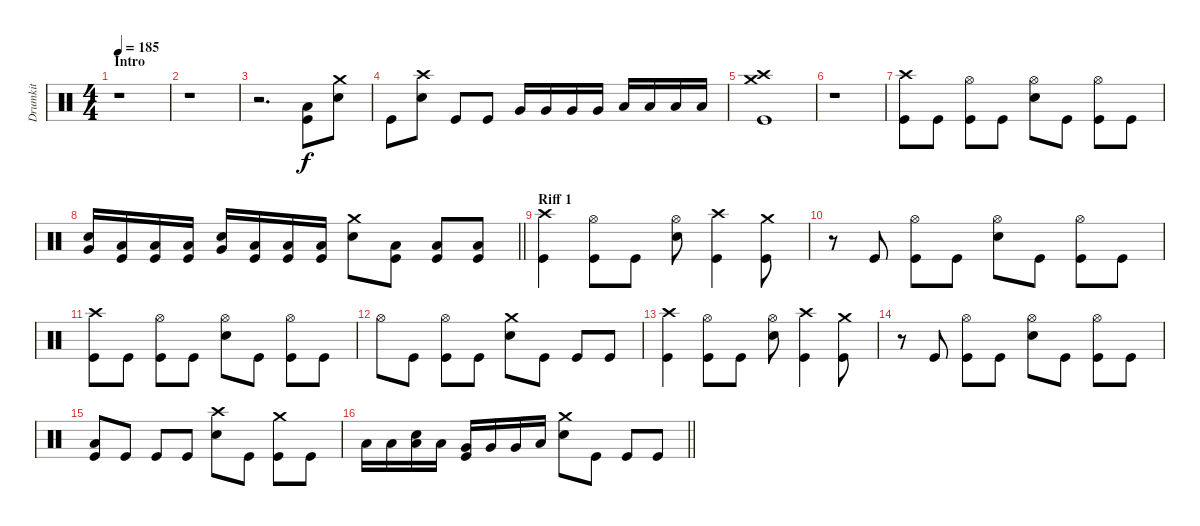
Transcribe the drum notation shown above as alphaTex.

\track ("Drumkit" "Drumkit") {instrument percussion}
\staff {score}
\articulation defaults
\ts (4 4)
\section ("" "Intro")
\tempo 185
\clef neutral
\ks c
r.1{dy f} |
r.1 |
r.2{d} ("Kick (hit)" "Low Floor Tom (hit)").8 ("Snare (hit) 2" "Crash medium (hit)").8 |
"Kick (hit)".8 ("Snare (hit) 2" "Crash high (hit)").8 "Kick (hit)".8 "Kick (hit)".8 "Very Low Tom (hit)".16 "Very Low Tom (hit)".16 "Very Low Tom (hit)".16 "Very Low Tom (hit)".16 "Low Floor Tom (hit)".16 "Low Floor Tom (hit)".16 "Low Floor Tom (hit)".16 "Low Floor Tom (hit)".16 |
("Kick (hit)" "Crash high (hit)" "Crash medium (hit)").1 |
r.1 |
("Kick (hit)" "Crash high (hit)").8 "Kick (hit)".8 ("Kick (hit)" "Hi-Hat (open)").8 "Kick (hit)".8 ("Snare (hit) 2" "Hi-Hat (open)").8 "Kick (hit)".8 ("Kick (hit)" "Hi-Hat (open)").8 "Kick (hit)".8 |
\barLineRight lightlight
("Very Low Tom (hit)" "Snare (hit) 2").16 ("Low Floor Tom (hit)" "Kick (hit)").16 ("Low Floor Tom (hit)" "Kick (hit)").16 ("Low Floor Tom (hit)" "Kick (hit)").16 ("Very Low Tom (hit)" "Snare (hit) 2").16 ("Low Floor Tom (hit)" "Kick (hit)").16 ("Low Floor Tom (hit)" "Kick (hit)").16 ("Low Floor Tom (hit)" "Kick (hit)").16 ("Snare (hit) 2" "Crash medium (hit)").8 ("Low Floor Tom (hit)" "Kick (hit)").8 ("Low Floor Tom (hit)" "Kick (hit)").8 ("Low Floor Tom (hit)" "Kick (hit)").8 |
\section ("" "Riff 1")
("Kick (hit)" "Crash high (hit)").4 ("Kick (hit)" "Hi-Hat (open)").8 "Kick (hit)".8 ("Snare (hit) 2" "Hi-Hat (open)").8 ("Kick (hit)" "Crash high (hit)").4 ("Kick (hit)" "Crash medium (hit)").8 |
r.8 "Kick (hit)".8 ("Kick (hit)" "Hi-Hat (open)").8 "Kick (hit)".8 ("Snare (hit) 2" "Hi-Hat (open)").8 "Kick (hit)".8 ("Kick (hit)" "Hi-Hat (open)").8 "Kick (hit)".8 |
("Kick (hit)" "Crash high (hit)").8 "Kick (hit)".8 ("Kick (hit)" "Hi-Hat (open)").8 "Kick (hit)".8 ("Snare (hit) 2" "Hi-Hat (open)").8 "Kick (hit)".8 ("Kick (hit)" "Hi-Hat (open)").8 "Kick (hit)".8 |
"Hi-Hat (open)".8 "Kick (hit)".8 ("Kick (hit)" "Hi-Hat (open)").8 "Kick (hit)".8 ("Snare (hit) 2" "Crash medium (hit)").8 "Kick (hit)".8 "Kick (hit)".8 "Kick (hit)".8 |
("Kick (hit)" "Crash high (hit)").4 ("Kick (hit)" "Hi-Hat (open)").8 "Kick (hit)".8 ("Snare (hit) 2" "Hi-Hat (open)").8 ("Kick (hit)" "Crash high (hit)").4 ("Kick (hit)" "Crash medium (hit)").8 |
r.8 "Kick (hit)".8 ("Kick (hit)" "Hi-Hat (open)").8 "Kick (hit)".8 ("Snare (hit) 2" "Hi-Hat (open)").8 "Kick (hit)".8 ("Kick (hit)" "Hi-Hat (open)").8 "Kick (hit)".8 |
("Kick (hit)" "Low Floor Tom (hit)").8 "Kick (hit)".8 "Kick (hit)".8 "Kick (hit)".8 ("Snare (hit) 2" "Crash high (hit)").8 "Kick (hit)".8 ("Kick (hit)" "Crash medium (hit)").8 "Kick (hit)".8 |
\barLineRight lightlight "Low Floor Tom (hit)".16 "Low Tom (hit)".16
("Low Tom (hit)" "Snare (hit) 2").16 "Low Tom (hit)".16 ("Very Low Tom (hit)" "Kick (hit)").16 "Very Low Tom (hit)".16 "Very Low Tom (hit)".16 "Low Floor Tom (hit)".16 ("Snare (hit) 2" "Crash medium (hit)").8 "Kick (hit)".8 "Kick (hit)".8 "Kick (hit)".8
